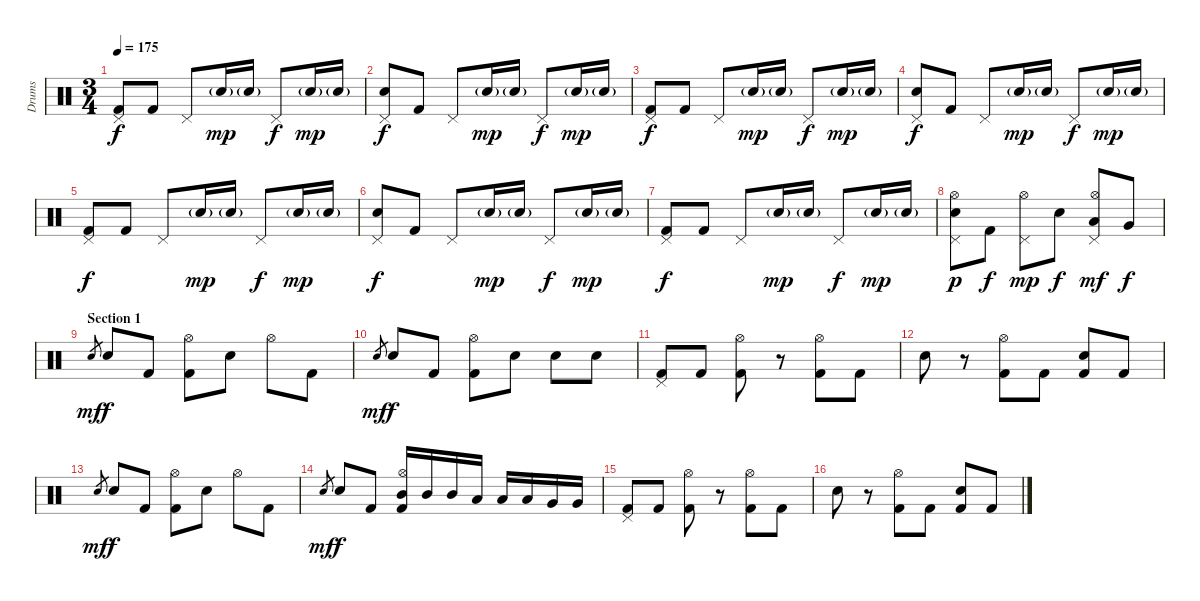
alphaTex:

\track ("Drums" "Drums") {instrument percussion}
\staff {score}
\articulation defaults
\ts (3 4)
\tempo 175
\clef neutral
\ks c
("Pedal Hi-Hat (hit)" "Kick (hit) 2").8{dy f} "Kick (hit) 2".8 "Pedal Hi-Hat (hit)".8 "Electric Snare (hit)"{g}.16{dy mp} "Electric Snare (hit)"{g}.16 "Pedal Hi-Hat (hit)".8{dy f} "Electric Snare (hit)"{g}.16{dy mp} "Electric Snare (hit)"{g}.16 |
("Pedal Hi-Hat (hit)" "Electric Snare (hit)").8{dy f} "Kick (hit) 2".8 "Pedal Hi-Hat (hit)".8 "Electric Snare (hit)"{g}.16{dy mp} "Electric Snare (hit)"{g}.16 "Pedal Hi-Hat (hit)".8{dy f} "Electric Snare (hit)"{g}.16{dy mp} "Electric Snare (hit)"{g}.16 |
("Pedal Hi-Hat (hit)" "Kick (hit) 2").8{dy f} "Kick (hit) 2".8 "Pedal Hi-Hat (hit)".8 "Electric Snare (hit)"{g}.16{dy mp} "Electric Snare (hit)"{g}.16 "Pedal Hi-Hat (hit)".8{dy f} "Electric Snare (hit)"{g}.16{dy mp} "Electric Snare (hit)"{g}.16 |
("Pedal Hi-Hat (hit)" "Electric Snare (hit)").8{dy f} "Kick (hit) 2".8 "Pedal Hi-Hat (hit)".8 "Electric Snare (hit)"{g}.16{dy mp} "Electric Snare (hit)"{g}.16 "Pedal Hi-Hat (hit)".8{dy f} "Electric Snare (hit)"{g}.16{dy mp} "Electric Snare (hit)"{g}.16 |
("Pedal Hi-Hat (hit)" "Kick (hit) 2").8{dy f} "Kick (hit) 2".8 "Pedal Hi-Hat (hit)".8 "Electric Snare (hit)"{g}.16{dy mp} "Electric Snare (hit)"{g}.16 "Pedal Hi-Hat (hit)".8{dy f} "Electric Snare (hit)"{g}.16{dy mp} "Electric Snare (hit)"{g}.16 |
("Pedal Hi-Hat (hit)" "Electric Snare (hit)").8{dy f} "Kick (hit) 2".8 "Pedal Hi-Hat (hit)".8 "Electric Snare (hit)"{g}.16{dy mp} "Electric Snare (hit)"{g}.16 "Pedal Hi-Hat (hit)".8{dy f} "Electric Snare (hit)"{g}.16{dy mp} "Electric Snare (hit)"{g}.16 |
("Pedal Hi-Hat (hit)" "Kick (hit) 2").8{dy f} "Kick (hit) 2".8 "Pedal Hi-Hat (hit)".8 "Electric Snare (hit)"{g}.16{dy mp} "Electric Snare (hit)"{g}.16 "Pedal Hi-Hat (hit)".8{dy f} "Electric Snare (hit)"{g}.16{dy mp} "Electric Snare (hit)"{g}.16 |
("Pedal Hi-Hat (hit)" "Hi-Hat (open)" "Electric Snare (hit)").8{dy p} "Kick (hit) 2".8{dy f} ("Pedal Hi-Hat (hit)" "Hi-Hat (open)").8{dy mp} "Electric Snare (hit)".8{dy f} ("Pedal Hi-Hat (hit)" "Hi-Hat (open)" "Low Tom (hit)").8{dy mf} "Very Low Tom (hit)".8{dy f} |
\section ("" "Section 1")
"Electric Snare (hit)".8{gr dy mf} "Electric Snare (hit)".8{dy f} "Kick (hit) 2".8 ("Hi-Hat (open)" "Kick (hit) 2").8 "Electric Snare (hit)".8 "Hi-Hat (open)".8 "Kick (hit) 2".8 |
"Electric Snare (hit)".8{gr dy mf} "Electric Snare (hit)".8{dy f} "Kick (hit) 2".8 ("Hi-Hat (open)" "Kick (hit) 2").8 "Electric Snare (hit)".8 "Electric Snare (hit)".8 "Electric Snare (hit)".8 |
("Pedal Hi-Hat (hit)" "Kick (hit) 2").8 "Kick (hit) 2".8 ("Hi-Hat (open)" "Kick (hit) 2").8 r.8 ("Hi-Hat (open)" "Kick (hit) 2").8 "Kick (hit) 2".8 |
"Electric Snare (hit)".8 r.8 ("Hi-Hat (open)" "Kick (hit) 2").8 "Kick (hit) 2".8 ("Kick (hit) 2" "Electric Snare (hit)").8 "Kick (hit) 2".8 |
"Electric Snare (hit)".8{gr dy mf} "Electric Snare (hit)".8{dy f} "Kick (hit) 2".8 ("Hi-Hat (open)" "Kick (hit) 2").8 "Electric Snare (hit)".8 "Hi-Hat (open)".8 "Kick (hit) 2".8 |
"Electric Snare (hit)".8{gr dy mf} "Electric Snare (hit)".8{dy f} "Kick (hit) 2".8 ("Hi-Hat (open)" "Mid Tom (hit)" "Kick (hit) 2").16 "Mid Tom (hit)".16 "Mid Tom (hit)".16 "Low Tom (hit)".16 "Low Tom (hit)".16 "Low Tom (hit)".16 "Very Low Tom (hit)".16 "Very Low Tom (hit)".16 |
("Pedal Hi-Hat (hit)" "Kick (hit) 2").8 "Kick (hit) 2".8 ("Hi-Hat (open)" "Kick (hit) 2").8 r.8 ("Hi-Hat (open)" "Kick (hit) 2").8 "Kick (hit) 2".8 |
"Electric Snare (hit)".8 r.8 ("Hi-Hat (open)" "Kick (hit) 2").8 "Kick (hit) 2".8 ("Kick (hit) 2" "Electric Snare (hit)").8 "Kick (hit) 2".8
